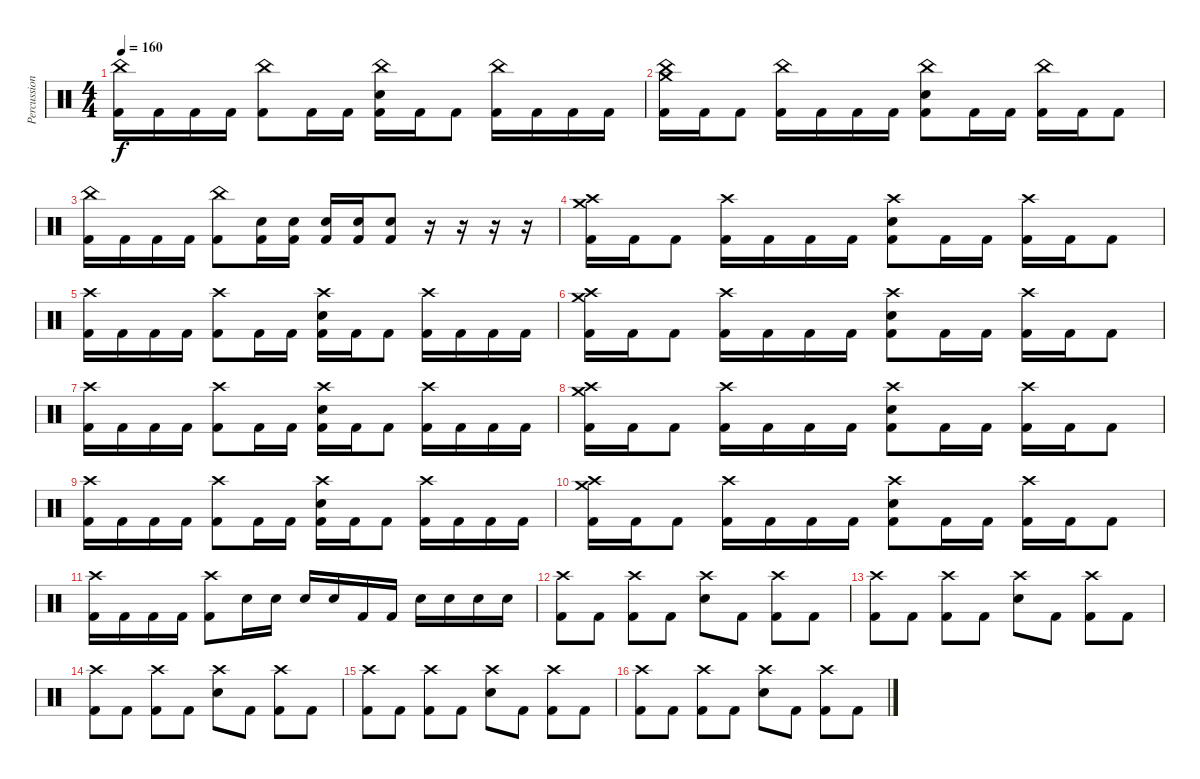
\track ("Percussion" "Percussion") {instrument percussion bank 255}
\staff {score}
\articulation defaults
\ts (4 4)
\tempo 160
\clef neutral
\ks c
("China (hit)" "Kick (hit) 2").16{dy f} "Kick (hit) 2".16 "Kick (hit) 2".16 "Kick (hit) 2".16 ("China (hit)" "Kick (hit) 2").8 "Kick (hit) 2".16 "Kick (hit) 2".16 ("China (hit)" "Electric Snare (hit)" "Kick (hit) 2").16 "Kick (hit) 2".16 "Kick (hit) 2".8 ("China (hit)" "Kick (hit) 2").16 "Kick (hit) 2".16 "Kick (hit) 2".16 "Kick (hit) 2".16 |
("Crash medium (hit)" "China (hit)" "Kick (hit) 2").16 "Kick (hit) 2".16 "Kick (hit) 2".8 ("China (hit)" "Kick (hit) 2").16 "Kick (hit) 2".16 "Kick (hit) 2".16 "Kick (hit) 2".16 ("China (hit)" "Electric Snare (hit)" "Kick (hit) 2").8 "Kick (hit) 2".16 "Kick (hit) 2".16 ("China (hit)" "Kick (hit) 2").16 "Kick (hit) 2".16 "Kick (hit) 2".8 |
("China (hit)" "Kick (hit) 2").16 "Kick (hit) 2".16 "Kick (hit) 2".16 "Kick (hit) 2".16 ("China (hit)" "Kick (hit) 2").8 ("Electric Snare (hit)" "Kick (hit) 2").16 ("Electric Snare (hit)" "Kick (hit) 2").16 ("Electric Snare (hit)" "Kick (hit) 2").16 ("Electric Snare (hit)" "Kick (hit) 2").16 ("Electric Snare (hit)" "Kick (hit) 2").8 r.16 r.16 r.16 r.16 |
("Crash medium (hit)" "Crash high (hit)" "Kick (hit) 2").16 "Kick (hit) 2".16 "Kick (hit) 2".8 ("Crash high (hit)" "Kick (hit) 2").16 "Kick (hit) 2".16 "Kick (hit) 2".16 "Kick (hit) 2".16 ("Crash high (hit)" "Electric Snare (hit)" "Kick (hit) 2").8 "Kick (hit) 2".16 "Kick (hit) 2".16 ("Crash high (hit)" "Kick (hit) 2").16 "Kick (hit) 2".16 "Kick (hit) 2".8 |
("Crash high (hit)" "Kick (hit) 2").16 "Kick (hit) 2".16 "Kick (hit) 2".16 "Kick (hit) 2".16 ("Crash high (hit)" "Kick (hit) 2").8 "Kick (hit) 2".16 "Kick (hit) 2".16 ("Crash high (hit)" "Electric Snare (hit)" "Kick (hit) 2").16 "Kick (hit) 2".16 "Kick (hit) 2".8 ("Crash high (hit)" "Kick (hit) 2").16 "Kick (hit) 2".16 "Kick (hit) 2".16 "Kick (hit) 2".16 |
("Crash medium (hit)" "Crash high (hit)" "Kick (hit) 2").16 "Kick (hit) 2".16 "Kick (hit) 2".8 ("Crash high (hit)" "Kick (hit) 2").16 "Kick (hit) 2".16 "Kick (hit) 2".16 "Kick (hit) 2".16 ("Crash high (hit)" "Electric Snare (hit)" "Kick (hit) 2").8 "Kick (hit) 2".16 "Kick (hit) 2".16 ("Crash high (hit)" "Kick (hit) 2").16 "Kick (hit) 2".16 "Kick (hit) 2".8 |
("Crash high (hit)" "Kick (hit) 2").16 "Kick (hit) 2".16 "Kick (hit) 2".16 "Kick (hit) 2".16 ("Crash high (hit)" "Kick (hit) 2").8 "Kick (hit) 2".16 "Kick (hit) 2".16 ("Crash high (hit)" "Electric Snare (hit)" "Kick (hit) 2").16 "Kick (hit) 2".16 "Kick (hit) 2".8 ("Crash high (hit)" "Kick (hit) 2").16 "Kick (hit) 2".16 "Kick (hit) 2".16 "Kick (hit) 2".16 |
("Crash medium (hit)" "Crash high (hit)" "Kick (hit) 2").16 "Kick (hit) 2".16 "Kick (hit) 2".8 ("Crash high (hit)" "Kick (hit) 2").16 "Kick (hit) 2".16 "Kick (hit) 2".16 "Kick (hit) 2".16 ("Crash high (hit)" "Electric Snare (hit)" "Kick (hit) 2").8 "Kick (hit) 2".16 "Kick (hit) 2".16 ("Crash high (hit)" "Kick (hit) 2").16 "Kick (hit) 2".16 "Kick (hit) 2".8 |
("Crash high (hit)" "Kick (hit) 2").16 "Kick (hit) 2".16 "Kick (hit) 2".16 "Kick (hit) 2".16 ("Crash high (hit)" "Kick (hit) 2").8 "Kick (hit) 2".16 "Kick (hit) 2".16 ("Crash high (hit)" "Electric Snare (hit)" "Kick (hit) 2").16 "Kick (hit) 2".16 "Kick (hit) 2".8 ("Crash high (hit)" "Kick (hit) 2").16 "Kick (hit) 2".16 "Kick (hit) 2".16 "Kick (hit) 2".16 |
("Crash medium (hit)" "Crash high (hit)" "Kick (hit) 2").16 "Kick (hit) 2".16 "Kick (hit) 2".8 ("Crash high (hit)" "Kick (hit) 2").16 "Kick (hit) 2".16 "Kick (hit) 2".16 "Kick (hit) 2".16 ("Crash high (hit)" "Electric Snare (hit)" "Kick (hit) 2").8 "Kick (hit) 2".16 "Kick (hit) 2".16 ("Crash high (hit)" "Kick (hit) 2").16 "Kick (hit) 2".16 "Kick (hit) 2".8 |
("Crash high (hit)" "Kick (hit) 2").16 "Kick (hit) 2".16 "Kick (hit) 2".16 "Kick (hit) 2".16 ("Crash high (hit)" "Kick (hit) 2").8 "Electric Snare (hit)".16 "Electric Snare (hit)".16 "Electric Snare (hit)".16 "Electric Snare (hit)".16 "Kick (hit) 2".16 "Kick (hit) 2".16 "Electric Snare (hit)".16 "Electric Snare (hit)".16 "Electric Snare (hit)".16 "Electric Snare (hit)".16 |
("Crash high (hit)" "Kick (hit) 2").8 "Kick (hit) 2".8 ("Crash high (hit)" "Kick (hit) 2").8 "Kick (hit) 2".8 ("Crash high (hit)" "Electric Snare (hit)").8 "Kick (hit) 2".8 ("Crash high (hit)" "Kick (hit) 2").8 "Kick (hit) 2".8 |
("Crash high (hit)" "Kick (hit) 2").8 "Kick (hit) 2".8 ("Crash high (hit)" "Kick (hit) 2").8 "Kick (hit) 2".8 ("Crash high (hit)" "Electric Snare (hit)").8 "Kick (hit) 2".8 ("Crash high (hit)" "Kick (hit) 2").8 "Kick (hit) 2".8 |
("Crash high (hit)" "Kick (hit) 2").8 "Kick (hit) 2".8 ("Crash high (hit)" "Kick (hit) 2").8 "Kick (hit) 2".8 ("Crash high (hit)" "Electric Snare (hit)").8 "Kick (hit) 2".8 ("Crash high (hit)" "Kick (hit) 2").8 "Kick (hit) 2".8 |
("Crash high (hit)" "Kick (hit) 2").8 "Kick (hit) 2".8 ("Crash high (hit)" "Kick (hit) 2").8 "Kick (hit) 2".8 ("Crash high (hit)" "Electric Snare (hit)").8 "Kick (hit) 2".8 ("Crash high (hit)" "Kick (hit) 2").8 "Kick (hit) 2".8 |
("Crash high (hit)" "Kick (hit) 2").8 "Kick (hit) 2".8 ("Crash high (hit)" "Kick (hit) 2").8 "Kick (hit) 2".8 ("Crash high (hit)" "Electric Snare (hit)").8 "Kick (hit) 2".8 ("Crash high (hit)" "Kick (hit) 2").8 "Kick (hit) 2".8
